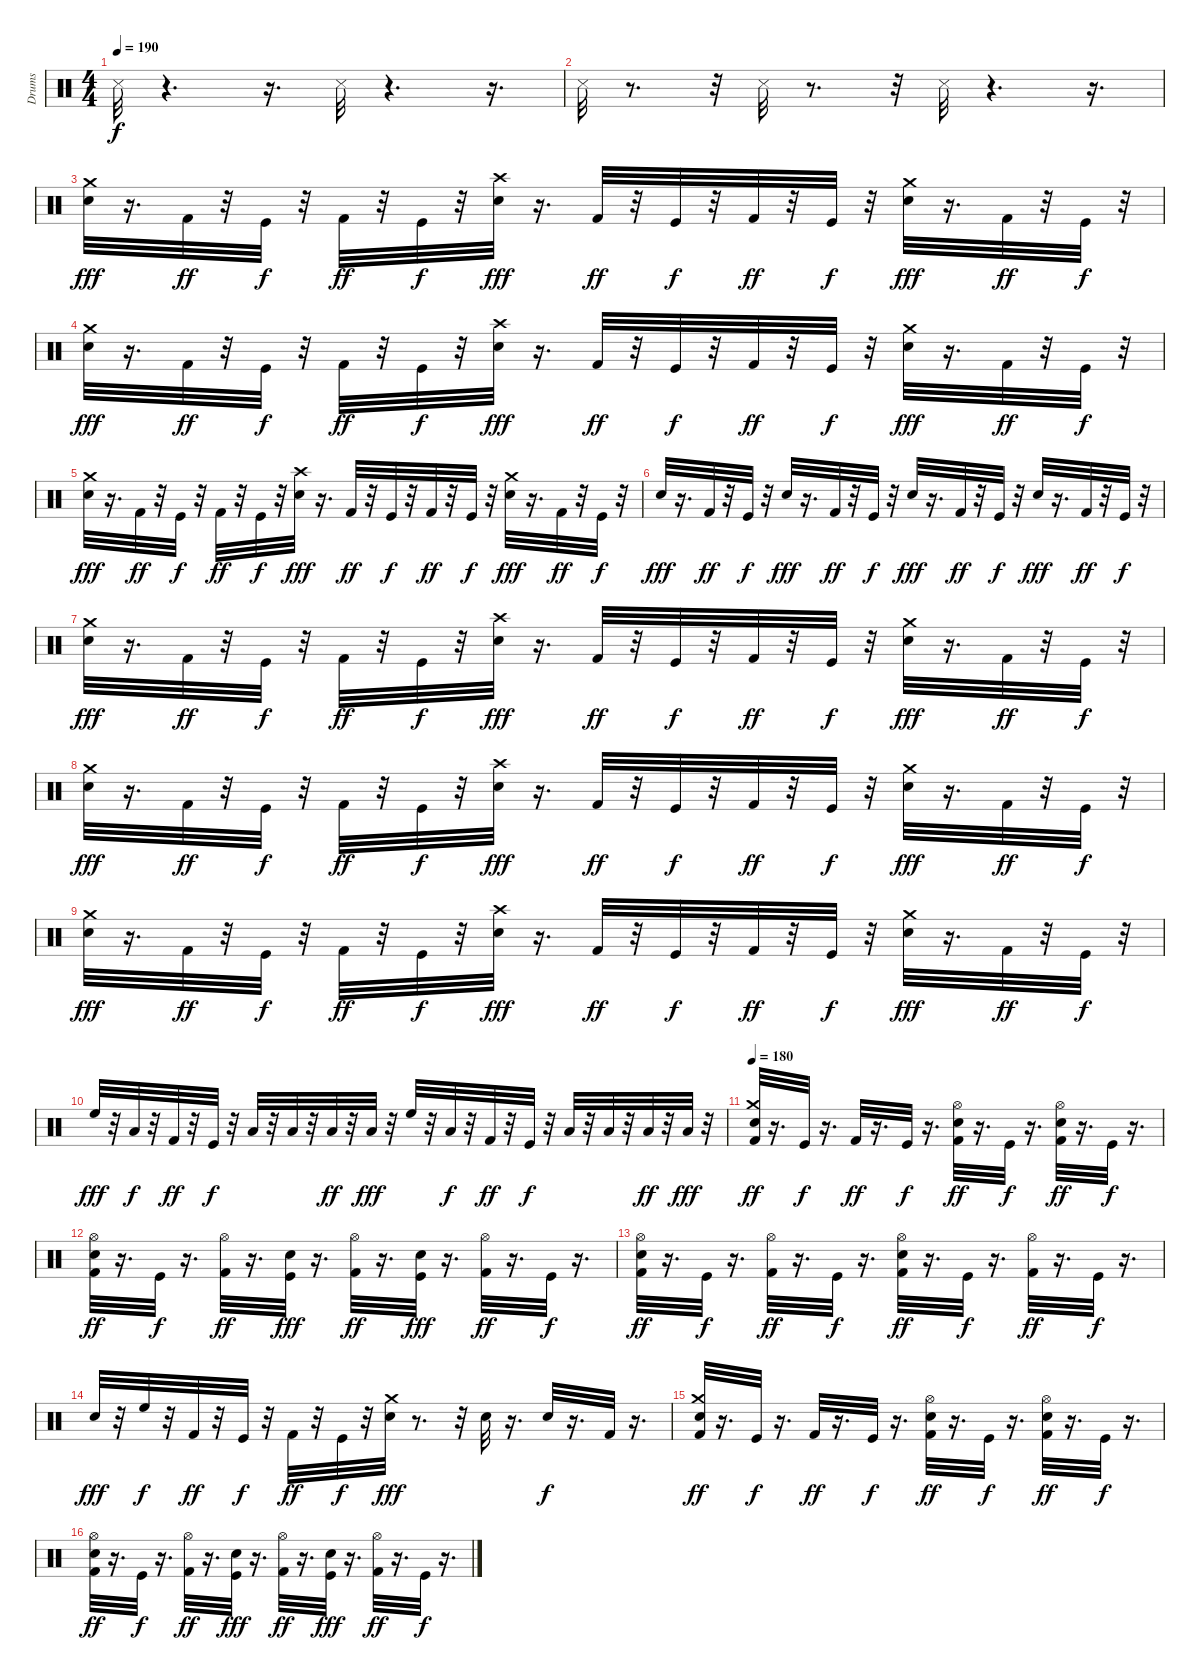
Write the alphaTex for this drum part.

\track ("Drums" "Drums") {instrument percussion}
\staff {score}
\articulation defaults
\ts (4 4)
\tempo 190
\clef neutral
\ks c "Snare (side stick) 3".32{dy f}
r.4{d} r.16{d} "Snare (side stick) 3".32 r.4{d} r.16{d} |
"Snare (side stick) 3".32 r.8{d} r.32 "Snare (side stick) 3".32 r.8{d} r.32 "Snare (side stick) 3".32 r.4{d} r.16{d} |
("Snare (hit) 2" "Crash medium (hit)").32{dy fff} r.16{d} "Kick (hit) 2".32{dy ff} r.32 "Kick (hit)".32{dy f} r.32 "Kick (hit) 2".32{dy ff} r.32 "Kick (hit)".32{dy f} r.32 ("Crash high (hit)" "Snare (hit) 2").32{dy fff} r.16{d} "Kick (hit) 2".32{dy ff} r.32 "Kick (hit)".32{dy f} r.32 "Kick (hit) 2".32{dy ff} r.32 "Kick (hit)".32{dy f} r.32 ("Crash medium (hit)" "Snare (hit) 2").32{dy fff} r.16{d} "Kick (hit) 2".32{dy ff} r.32 "Kick (hit)".32{dy f} r.32 |
("Snare (hit) 2" "Crash medium (hit)").32{dy fff} r.16{d} "Kick (hit) 2".32{dy ff} r.32 "Kick (hit)".32{dy f} r.32 "Kick (hit) 2".32{dy ff} r.32 "Kick (hit)".32{dy f} r.32 ("Crash high (hit)" "Snare (hit) 2").32{dy fff} r.16{d} "Kick (hit) 2".32{dy ff} r.32 "Kick (hit)".32{dy f} r.32 "Kick (hit) 2".32{dy ff} r.32 "Kick (hit)".32{dy f} r.32 ("Crash medium (hit)" "Snare (hit) 2").32{dy fff} r.16{d} "Kick (hit) 2".32{dy ff} r.32 "Kick (hit)".32{dy f} r.32 |
("Snare (hit) 2" "Crash medium (hit)").32{dy fff} r.16{d} "Kick (hit) 2".32{dy ff} r.32 "Kick (hit)".32{dy f} r.32 "Kick (hit) 2".32{dy ff} r.32 "Kick (hit)".32{dy f} r.32 ("Crash high (hit)" "Snare (hit) 2").32{dy fff} r.16{d} "Kick (hit) 2".32{dy ff} r.32 "Kick (hit)".32{dy f} r.32 "Kick (hit) 2".32{dy ff} r.32 "Kick (hit)".32{dy f} r.32 ("Crash medium (hit)" "Snare (hit) 2").32{dy fff} r.16{d} "Kick (hit) 2".32{dy ff} r.32 "Kick (hit)".32{dy f} r.32 |
"Snare (hit) 2".32{dy fff} r.16{d} "Kick (hit) 2".32{dy ff} r.32 "Kick (hit)".32{dy f} r.32 "Snare (hit) 2".32{dy fff} r.16{d} "Kick (hit) 2".32{dy ff} r.32 "Kick (hit)".32{dy f} r.32 "Snare (hit) 2".32{dy fff} r.16{d} "Kick (hit) 2".32{dy ff} r.32 "Kick (hit)".32{dy f} r.32 "Snare (hit) 2".32{dy fff} r.16{d} "Kick (hit) 2".32{dy ff} r.32 "Kick (hit)".32{dy f} r.32 |
("Snare (hit) 2" "Crash medium (hit)").32{dy fff} r.16{d} "Kick (hit) 2".32{dy ff} r.32 "Kick (hit)".32{dy f} r.32 "Kick (hit) 2".32{dy ff} r.32 "Kick (hit)".32{dy f} r.32 ("Crash high (hit)" "Snare (hit) 2").32{dy fff} r.16{d} "Kick (hit) 2".32{dy ff} r.32 "Kick (hit)".32{dy f} r.32 "Kick (hit) 2".32{dy ff} r.32 "Kick (hit)".32{dy f} r.32 ("Crash medium (hit)" "Snare (hit) 2").32{dy fff} r.16{d} "Kick (hit) 2".32{dy ff} r.32 "Kick (hit)".32{dy f} r.32 |
("Snare (hit) 2" "Crash medium (hit)").32{dy fff} r.16{d} "Kick (hit) 2".32{dy ff} r.32 "Kick (hit)".32{dy f} r.32 "Kick (hit) 2".32{dy ff} r.32 "Kick (hit)".32{dy f} r.32 ("Crash high (hit)" "Snare (hit) 2").32{dy fff} r.16{d} "Kick (hit) 2".32{dy ff} r.32 "Kick (hit)".32{dy f} r.32 "Kick (hit) 2".32{dy ff} r.32 "Kick (hit)".32{dy f} r.32 ("Crash medium (hit)" "Snare (hit) 2").32{dy fff} r.16{d} "Kick (hit) 2".32{dy ff} r.32 "Kick (hit)".32{dy f} r.32 |
("Snare (hit) 2" "Crash medium (hit)").32{dy fff} r.16{d} "Kick (hit) 2".32{dy ff} r.32 "Kick (hit)".32{dy f} r.32 "Kick (hit) 2".32{dy ff} r.32 "Kick (hit)".32{dy f} r.32 ("Crash high (hit)" "Snare (hit) 2").32{dy fff} r.16{d} "Kick (hit) 2".32{dy ff} r.32 "Kick (hit)".32{dy f} r.32 "Kick (hit) 2".32{dy ff} r.32 "Kick (hit)".32{dy f} r.32 ("Crash medium (hit)" "Snare (hit) 2").32{dy fff} r.16{d} "Kick (hit) 2".32{dy ff} r.32 "Kick (hit)".32{dy f} r.32 |
"High Floor Tom (hit)".32{dy fff} r.32 "Low Tom (hit)".32{dy f} r.32 "Kick (hit) 2".32{dy ff} r.32 "Kick (hit)".32{dy f} r.32 "Low Floor Tom (hit)".32 r.32 "Low Floor Tom (hit)".32 r.32 "Low Floor Tom (hit)".32{dy ff} r.32 "Low Floor Tom (hit)".32{dy fff} r.32 "High Floor Tom (hit)".32 r.32 "Low Tom (hit)".32{dy f} r.32 "Kick (hit) 2".32{dy ff} r.32 "Kick (hit)".32{dy f} r.32 "Low Floor Tom (hit)".32 r.32 "Low Floor Tom (hit)".32 r.32 "Low Floor Tom (hit)".32{dy ff} r.32 "Low Floor Tom (hit)".32{dy fff} r.32 |
\tempo 180
("Snare (hit) 2" "Crash medium (hit)" "Kick (hit) 2").32{dy ff} r.16{d} "Kick (hit)".32{dy f} r.16{d} "Kick (hit) 2".32{dy ff} r.16{d} "Kick (hit)".32{dy f} r.16{d} ("Hi-Hat (open)" "Snare (hit) 2" "Kick (hit) 2").32{dy ff} r.16{d} "Kick (hit)".32{dy f} r.16{d} ("Hi-Hat (open)" "Snare (hit) 2" "Kick (hit) 2").32{dy ff} r.16{d} "Kick (hit)".32{dy f} r.16{d} |
("Snare (hit) 2" "Hi-Hat (open)" "Kick (hit) 2").32{dy ff} r.16{d} "Kick (hit)".32{dy f} r.16{d} ("Hi-Hat (open)" "Kick (hit) 2").32{dy ff} r.16{d} ("Snare (hit) 2" "Kick (hit)").32{dy fff} r.16{d} ("Hi-Hat (open)" "Kick (hit) 2").32{dy ff} r.16{d} ("Snare (hit) 2" "Kick (hit)").32{dy fff} r.16{d} ("Hi-Hat (open)" "Kick (hit) 2").32{dy ff} r.16{d} "Kick (hit)".32{dy f} r.16{d} |
("Snare (hit) 2" "Hi-Hat (open)" "Kick (hit) 2").32{dy ff} r.16{d} "Kick (hit)".32{dy f} r.16{d} ("Hi-Hat (open)" "Kick (hit) 2").32{dy ff} r.16{d} "Kick (hit)".32{dy f} r.16{d} ("Snare (hit) 2" "Hi-Hat (open)" "Kick (hit) 2").32{dy ff} r.16{d} "Kick (hit)".32{dy f} r.16{d} ("Hi-Hat (open)" "Kick (hit) 2").32{dy ff} r.16{d} "Kick (hit)".32{dy f} r.16{d} |
"Snare (hit) 2".32{dy fff} r.32 "High Floor Tom (hit)".32{dy f} r.32 "Kick (hit) 2".32{dy ff} r.32 "Kick (hit)".32{dy f} r.32 "Kick (hit) 2".32{dy ff} r.32 "Kick (hit)".32{dy f} r.32 ("Crash medium (hit)" "Snare (hit) 2").32{dy fff} r.8{d} r.32 "Snare (hit) 2".32 r.16{d} "Snare (hit) 2".32{dy f} r.16{d} "Kick (hit) 2".32 r.16{d} |
("Snare (hit) 2" "Crash medium (hit)" "Kick (hit) 2").32{dy ff} r.16{d} "Kick (hit)".32{dy f} r.16{d} "Kick (hit) 2".32{dy ff} r.16{d} "Kick (hit)".32{dy f} r.16{d} ("Hi-Hat (open)" "Snare (hit) 2" "Kick (hit) 2").32{dy ff} r.16{d} "Kick (hit)".32{dy f} r.16{d} ("Hi-Hat (open)" "Snare (hit) 2" "Kick (hit) 2").32{dy ff} r.16{d} "Kick (hit)".32{dy f} r.16{d} |
("Snare (hit) 2" "Hi-Hat (open)" "Kick (hit) 2").32{dy ff} r.16{d} "Kick (hit)".32{dy f} r.16{d} ("Hi-Hat (open)" "Kick (hit) 2").32{dy ff} r.16{d} ("Snare (hit) 2" "Kick (hit)").32{dy fff} r.16{d} ("Hi-Hat (open)" "Kick (hit) 2").32{dy ff} r.16{d} ("Snare (hit) 2" "Kick (hit)").32{dy fff} r.16{d} ("Hi-Hat (open)" "Kick (hit) 2").32{dy ff} r.16{d} "Kick (hit)".32{dy f} r.16{d}
